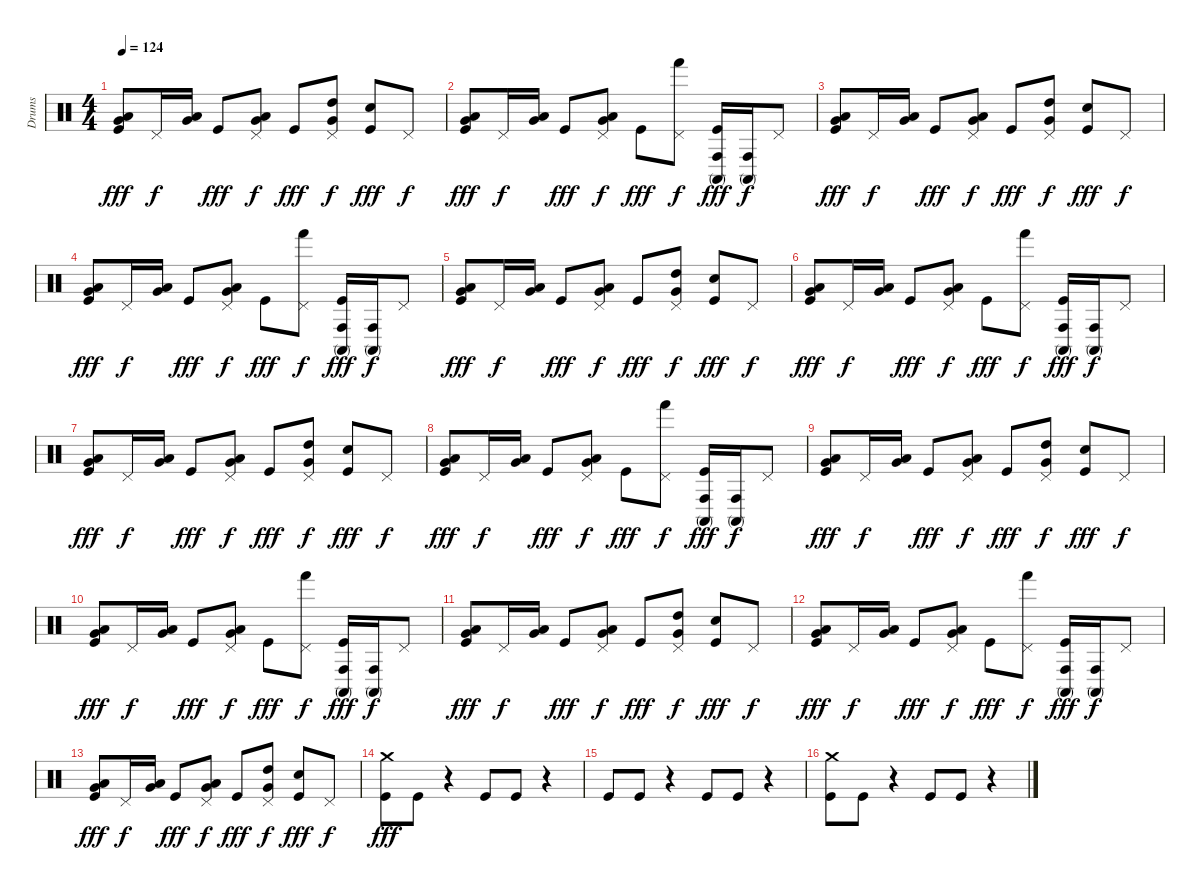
\track ("Drums" "Drums") {instrument percussion}
\staff {score}
\articulation defaults
\ts (4 4)
\tempo 124
\clef neutral
\ks c
("Kick (hit)" "Very Low Tom (hit)" "Low Tom (hit)").8{dy fff} "Pedal Hi-Hat (hit)".16{dy f} ("Very Low Tom (hit)" "Low Tom (hit)").16 "Kick (hit)".8{dy fff} ("Pedal Hi-Hat (hit)" "Very Low Tom (hit)" "Low Tom (hit)").8{dy f} "Kick (hit)".8{dy fff} ("Pedal Hi-Hat (hit)" "High Tom (hit)" "Very Low Tom (hit)").8{dy f} ("Kick (hit)" "Electric Snare (hit)").8{dy fff} "Pedal Hi-Hat (hit)".8{dy f} |
("Kick (hit)" "Very Low Tom (hit)" "Low Tom (hit)").8{dy fff} "Pedal Hi-Hat (hit)".16{dy f} ("Very Low Tom (hit)" "Low Tom (hit)").16 "Kick (hit)".8{dy fff} ("Pedal Hi-Hat (hit)" "Very Low Tom (hit)" "Low Tom (hit)").8{dy f} "Kick (hit)".8{dy fff} ("Pedal Hi-Hat (hit)" "Hand (hit)").8{dy f} ("Kick (hit)" "Conga high (mute)" "Conga high (hit)").16{dy fff} ("Conga high (mute)" "Conga high (hit)").16{dy f} "Pedal Hi-Hat (hit)".8 |
("Kick (hit)" "Very Low Tom (hit)" "Low Tom (hit)").8{dy fff} "Pedal Hi-Hat (hit)".16{dy f} ("Very Low Tom (hit)" "Low Tom (hit)").16 "Kick (hit)".8{dy fff} ("Pedal Hi-Hat (hit)" "Very Low Tom (hit)" "Low Tom (hit)").8{dy f} "Kick (hit)".8{dy fff} ("Pedal Hi-Hat (hit)" "High Tom (hit)" "Very Low Tom (hit)").8{dy f} ("Kick (hit)" "Electric Snare (hit)").8{dy fff} "Pedal Hi-Hat (hit)".8{dy f} |
("Kick (hit)" "Very Low Tom (hit)" "Low Tom (hit)").8{dy fff} "Pedal Hi-Hat (hit)".16{dy f} ("Very Low Tom (hit)" "Low Tom (hit)").16 "Kick (hit)".8{dy fff} ("Pedal Hi-Hat (hit)" "Very Low Tom (hit)" "Low Tom (hit)").8{dy f} "Kick (hit)".8{dy fff} ("Pedal Hi-Hat (hit)" "Hand (hit)").8{dy f} ("Kick (hit)" "Conga high (mute)" "Conga high (hit)").16{dy fff} ("Conga high (mute)" "Conga high (hit)").16{dy f} "Pedal Hi-Hat (hit)".8 |
("Kick (hit)" "Very Low Tom (hit)" "Low Tom (hit)").8{dy fff} "Pedal Hi-Hat (hit)".16{dy f} ("Very Low Tom (hit)" "Low Tom (hit)").16 "Kick (hit)".8{dy fff} ("Pedal Hi-Hat (hit)" "Very Low Tom (hit)" "Low Tom (hit)").8{dy f} "Kick (hit)".8{dy fff} ("Pedal Hi-Hat (hit)" "High Tom (hit)" "Very Low Tom (hit)").8{dy f} ("Kick (hit)" "Electric Snare (hit)").8{dy fff} "Pedal Hi-Hat (hit)".8{dy f} |
("Kick (hit)" "Very Low Tom (hit)" "Low Tom (hit)").8{dy fff} "Pedal Hi-Hat (hit)".16{dy f} ("Very Low Tom (hit)" "Low Tom (hit)").16 "Kick (hit)".8{dy fff} ("Pedal Hi-Hat (hit)" "Very Low Tom (hit)" "Low Tom (hit)").8{dy f} "Kick (hit)".8{dy fff} ("Pedal Hi-Hat (hit)" "Hand (hit)").8{dy f} ("Kick (hit)" "Conga high (mute)" "Conga high (hit)").16{dy fff} ("Conga high (mute)" "Conga high (hit)").16{dy f} "Pedal Hi-Hat (hit)".8 |
("Kick (hit)" "Very Low Tom (hit)" "Low Tom (hit)").8{dy fff} "Pedal Hi-Hat (hit)".16{dy f} ("Very Low Tom (hit)" "Low Tom (hit)").16 "Kick (hit)".8{dy fff} ("Pedal Hi-Hat (hit)" "Very Low Tom (hit)" "Low Tom (hit)").8{dy f} "Kick (hit)".8{dy fff} ("Pedal Hi-Hat (hit)" "High Tom (hit)" "Very Low Tom (hit)").8{dy f} ("Kick (hit)" "Electric Snare (hit)").8{dy fff} "Pedal Hi-Hat (hit)".8{dy f} |
("Kick (hit)" "Very Low Tom (hit)" "Low Tom (hit)").8{dy fff} "Pedal Hi-Hat (hit)".16{dy f} ("Very Low Tom (hit)" "Low Tom (hit)").16 "Kick (hit)".8{dy fff} ("Pedal Hi-Hat (hit)" "Very Low Tom (hit)" "Low Tom (hit)").8{dy f} "Kick (hit)".8{dy fff} ("Pedal Hi-Hat (hit)" "Hand (hit)").8{dy f} ("Kick (hit)" "Conga high (mute)" "Conga high (hit)").16{dy fff} ("Conga high (mute)" "Conga high (hit)").16{dy f} "Pedal Hi-Hat (hit)".8 |
("Kick (hit)" "Very Low Tom (hit)" "Low Tom (hit)").8{dy fff} "Pedal Hi-Hat (hit)".16{dy f} ("Very Low Tom (hit)" "Low Tom (hit)").16 "Kick (hit)".8{dy fff} ("Pedal Hi-Hat (hit)" "Very Low Tom (hit)" "Low Tom (hit)").8{dy f} "Kick (hit)".8{dy fff} ("Pedal Hi-Hat (hit)" "High Tom (hit)" "Very Low Tom (hit)").8{dy f} ("Kick (hit)" "Electric Snare (hit)").8{dy fff} "Pedal Hi-Hat (hit)".8{dy f} |
("Kick (hit)" "Very Low Tom (hit)" "Low Tom (hit)").8{dy fff} "Pedal Hi-Hat (hit)".16{dy f} ("Very Low Tom (hit)" "Low Tom (hit)").16 "Kick (hit)".8{dy fff} ("Pedal Hi-Hat (hit)" "Very Low Tom (hit)" "Low Tom (hit)").8{dy f} "Kick (hit)".8{dy fff} ("Pedal Hi-Hat (hit)" "Hand (hit)").8{dy f} ("Kick (hit)" "Conga high (mute)" "Conga high (hit)").16{dy fff} ("Conga high (mute)" "Conga high (hit)").16{dy f} "Pedal Hi-Hat (hit)".8 |
("Kick (hit)" "Very Low Tom (hit)" "Low Tom (hit)").8{dy fff} "Pedal Hi-Hat (hit)".16{dy f} ("Very Low Tom (hit)" "Low Tom (hit)").16 "Kick (hit)".8{dy fff} ("Pedal Hi-Hat (hit)" "Very Low Tom (hit)" "Low Tom (hit)").8{dy f} "Kick (hit)".8{dy fff} ("Pedal Hi-Hat (hit)" "High Tom (hit)" "Very Low Tom (hit)").8{dy f} ("Kick (hit)" "Electric Snare (hit)").8{dy fff} "Pedal Hi-Hat (hit)".8{dy f} |
("Kick (hit)" "Very Low Tom (hit)" "Low Tom (hit)").8{dy fff} "Pedal Hi-Hat (hit)".16{dy f} ("Very Low Tom (hit)" "Low Tom (hit)").16 "Kick (hit)".8{dy fff} ("Pedal Hi-Hat (hit)" "Very Low Tom (hit)" "Low Tom (hit)").8{dy f} "Kick (hit)".8{dy fff} ("Pedal Hi-Hat (hit)" "Hand (hit)").8{dy f} ("Kick (hit)" "Conga high (mute)" "Conga high (hit)").16{dy fff} ("Conga high (mute)" "Conga high (hit)").16{dy f} "Pedal Hi-Hat (hit)".8 |
("Kick (hit)" "Very Low Tom (hit)" "Low Tom (hit)").8{dy fff} "Pedal Hi-Hat (hit)".16{dy f} ("Very Low Tom (hit)" "Low Tom (hit)").16 "Kick (hit)".8{dy fff} ("Pedal Hi-Hat (hit)" "Very Low Tom (hit)" "Low Tom (hit)").8{dy f} "Kick (hit)".8{dy fff} ("Pedal Hi-Hat (hit)" "High Tom (hit)" "Very Low Tom (hit)").8{dy f} ("Kick (hit)" "Electric Snare (hit)").8{dy fff} "Pedal Hi-Hat (hit)".8{dy f} |
("Kick (hit)" "Crash medium (hit)").8{dy fff} "Kick (hit)".8 r.4 "Kick (hit)".8 "Kick (hit)".8 r.4 |
"Kick (hit)".8 "Kick (hit)".8 r.4 "Kick (hit)".8 "Kick (hit)".8 r.4 |
("Kick (hit)" "Crash medium (hit)").8 "Kick (hit)".8 r.4 "Kick (hit)".8 "Kick (hit)".8 r.4
